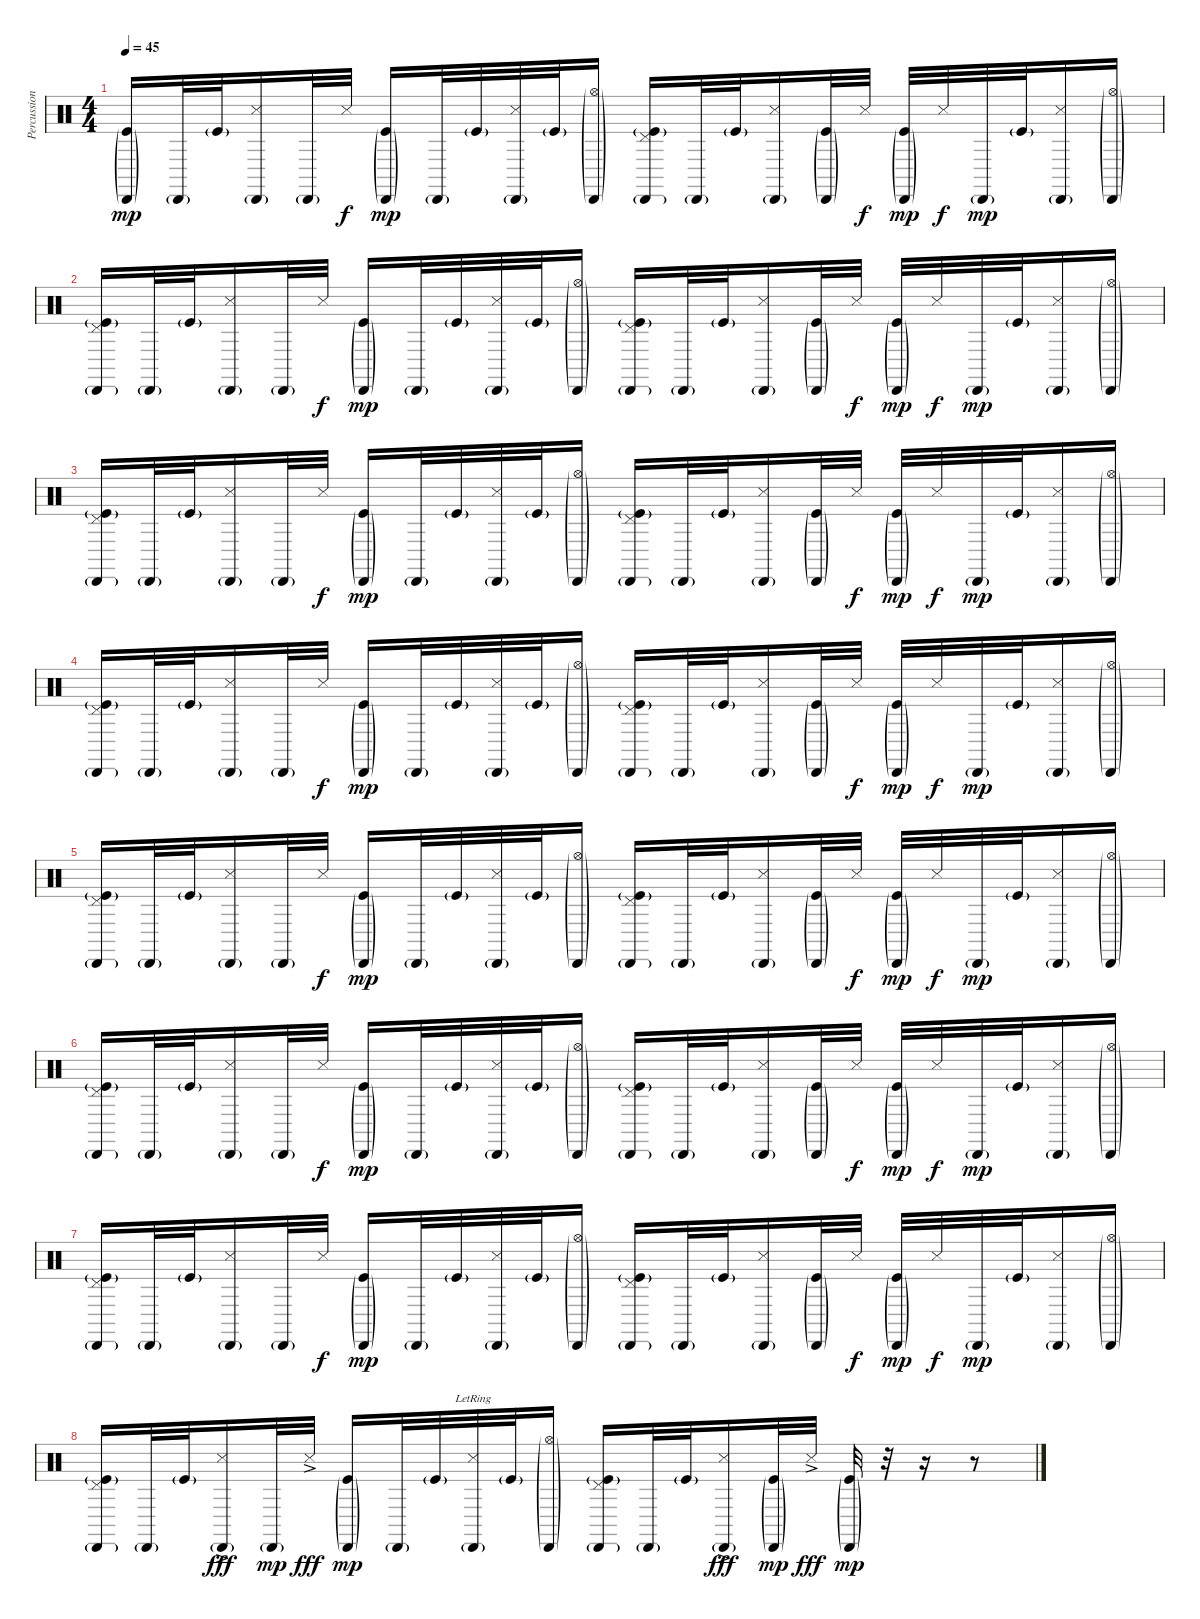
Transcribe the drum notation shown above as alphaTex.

\track ("Percussion" "Percussion") {instrument percussion}
\staff {score}
\articulation defaults
\ts (4 4)
\tempo 45
\clef neutral
\ks c
("Cabasa (hit)"{g} "Kick (hit)"{g}).16{dy mp} "Cabasa (hit)"{g}.32 "Kick (hit)"{g}.32 ("Cabasa (hit)"{g} "Snare (side stick) 3").16 "Cabasa (hit)"{g}.32 "Snare (side stick) 3".32{dy f} ("Cabasa (hit)"{g} "Kick (hit)"{g}).16{dy mp} "Cabasa (hit)"{g}.32 "Kick (hit)"{g}.32 ("Cabasa (hit)"{g} "Snare (side stick) 3").32 "Kick (hit)"{g}.32 ("Hi-Hat (open)"{g} "Cabasa (hit)"{g}).16 ("Pedal Hi-Hat (hit)" "Cabasa (hit)"{g} "Kick (hit)"{g}).16 "Cabasa (hit)"{g}.32 "Kick (hit)"{g}.32 ("Cabasa (hit)"{g} "Snare (side stick) 3").16 ("Cabasa (hit)"{g} "Kick (hit)"{g}).32 "Snare (side stick) 3".32{dy f} ("Cabasa (hit)"{g} "Kick (hit)"{g}).32{dy mp} "Snare (side stick) 3".32{dy f} "Cabasa (hit)"{g}.32{dy mp} "Kick (hit)"{g}.32 ("Cabasa (hit)"{g} "Snare (side stick) 3").16 ("Hi-Hat (open)"{g} "Cabasa (hit)"{g}).16 |
("Pedal Hi-Hat (hit)" "Cabasa (hit)"{g} "Kick (hit)"{g}).16 "Cabasa (hit)"{g}.32 "Kick (hit)"{g}.32 ("Cabasa (hit)"{g} "Snare (side stick) 3").16 "Cabasa (hit)"{g}.32 "Snare (side stick) 3".32{dy f} ("Cabasa (hit)"{g} "Kick (hit)"{g}).16{dy mp} "Cabasa (hit)"{g}.32 "Kick (hit)"{g}.32 ("Cabasa (hit)"{g} "Snare (side stick) 3").32 "Kick (hit)"{g}.32 ("Hi-Hat (open)"{g} "Cabasa (hit)"{g}).16 ("Pedal Hi-Hat (hit)" "Cabasa (hit)"{g} "Kick (hit)"{g}).16 "Cabasa (hit)"{g}.32 "Kick (hit)"{g}.32 ("Cabasa (hit)"{g} "Snare (side stick) 3").16 ("Cabasa (hit)"{g} "Kick (hit)"{g}).32 "Snare (side stick) 3".32{dy f} ("Cabasa (hit)"{g} "Kick (hit)"{g}).32{dy mp} "Snare (side stick) 3".32{dy f} "Cabasa (hit)"{g}.32{dy mp} "Kick (hit)"{g}.32 ("Cabasa (hit)"{g} "Snare (side stick) 3").16 ("Hi-Hat (open)"{g} "Cabasa (hit)"{g}).16 |
("Pedal Hi-Hat (hit)" "Cabasa (hit)"{g} "Kick (hit)"{g}).16 "Cabasa (hit)"{g}.32 "Kick (hit)"{g}.32 ("Cabasa (hit)"{g} "Snare (side stick) 3").16 "Cabasa (hit)"{g}.32 "Snare (side stick) 3".32{dy f} ("Cabasa (hit)"{g} "Kick (hit)"{g}).16{dy mp} "Cabasa (hit)"{g}.32 "Kick (hit)"{g}.32 ("Cabasa (hit)"{g} "Snare (side stick) 3").32 "Kick (hit)"{g}.32 ("Hi-Hat (open)"{g} "Cabasa (hit)"{g}).16 ("Pedal Hi-Hat (hit)" "Cabasa (hit)"{g} "Kick (hit)"{g}).16 "Cabasa (hit)"{g}.32 "Kick (hit)"{g}.32 ("Cabasa (hit)"{g} "Snare (side stick) 3").16 ("Cabasa (hit)"{g} "Kick (hit)"{g}).32 "Snare (side stick) 3".32{dy f} ("Cabasa (hit)"{g} "Kick (hit)"{g}).32{dy mp} "Snare (side stick) 3".32{dy f} "Cabasa (hit)"{g}.32{dy mp} "Kick (hit)"{g}.32 ("Cabasa (hit)"{g} "Snare (side stick) 3").16 ("Hi-Hat (open)"{g} "Cabasa (hit)"{g}).16 |
("Pedal Hi-Hat (hit)" "Cabasa (hit)"{g} "Kick (hit)"{g}).16 "Cabasa (hit)"{g}.32 "Kick (hit)"{g}.32 ("Cabasa (hit)"{g} "Snare (side stick) 3").16 "Cabasa (hit)"{g}.32 "Snare (side stick) 3".32{dy f} ("Cabasa (hit)"{g} "Kick (hit)"{g}).16{dy mp} "Cabasa (hit)"{g}.32 "Kick (hit)"{g}.32 ("Cabasa (hit)"{g} "Snare (side stick) 3").32 "Kick (hit)"{g}.32 ("Hi-Hat (open)"{g} "Cabasa (hit)"{g}).16 ("Pedal Hi-Hat (hit)" "Cabasa (hit)"{g} "Kick (hit)"{g}).16 "Cabasa (hit)"{g}.32 "Kick (hit)"{g}.32 ("Cabasa (hit)"{g} "Snare (side stick) 3").16 ("Cabasa (hit)"{g} "Kick (hit)"{g}).32 "Snare (side stick) 3".32{dy f} ("Cabasa (hit)"{g} "Kick (hit)"{g}).32{dy mp} "Snare (side stick) 3".32{dy f} "Cabasa (hit)"{g}.32{dy mp} "Kick (hit)"{g}.32 ("Cabasa (hit)"{g} "Snare (side stick) 3").16 ("Hi-Hat (open)"{g} "Cabasa (hit)"{g}).16 |
("Pedal Hi-Hat (hit)" "Cabasa (hit)"{g} "Kick (hit)"{g}).16 "Cabasa (hit)"{g}.32 "Kick (hit)"{g}.32 ("Cabasa (hit)"{g} "Snare (side stick) 3").16 "Cabasa (hit)"{g}.32 "Snare (side stick) 3".32{dy f} ("Cabasa (hit)"{g} "Kick (hit)"{g}).16{dy mp} "Cabasa (hit)"{g}.32 "Kick (hit)"{g}.32 ("Cabasa (hit)"{g} "Snare (side stick) 3").32 "Kick (hit)"{g}.32 ("Hi-Hat (open)"{g} "Cabasa (hit)"{g}).16 ("Pedal Hi-Hat (hit)" "Cabasa (hit)"{g} "Kick (hit)"{g}).16 "Cabasa (hit)"{g}.32 "Kick (hit)"{g}.32 ("Cabasa (hit)"{g} "Snare (side stick) 3").16 ("Cabasa (hit)"{g} "Kick (hit)"{g}).32 "Snare (side stick) 3".32{dy f} ("Cabasa (hit)"{g} "Kick (hit)"{g}).32{dy mp} "Snare (side stick) 3".32{dy f} "Cabasa (hit)"{g}.32{dy mp} "Kick (hit)"{g}.32 ("Cabasa (hit)"{g} "Snare (side stick) 3").16 ("Hi-Hat (open)"{g} "Cabasa (hit)"{g}).16 |
("Pedal Hi-Hat (hit)" "Cabasa (hit)"{g} "Kick (hit)"{g}).16 "Cabasa (hit)"{g}.32 "Kick (hit)"{g}.32 ("Cabasa (hit)"{g} "Snare (side stick) 3").16 "Cabasa (hit)"{g}.32 "Snare (side stick) 3".32{dy f} ("Cabasa (hit)"{g} "Kick (hit)"{g}).16{dy mp} "Cabasa (hit)"{g}.32 "Kick (hit)"{g}.32 ("Cabasa (hit)"{g} "Snare (side stick) 3").32 "Kick (hit)"{g}.32 ("Hi-Hat (open)"{g} "Cabasa (hit)"{g}).16 ("Pedal Hi-Hat (hit)" "Cabasa (hit)"{g} "Kick (hit)"{g}).16 "Cabasa (hit)"{g}.32 "Kick (hit)"{g}.32 ("Cabasa (hit)"{g} "Snare (side stick) 3").16 ("Cabasa (hit)"{g} "Kick (hit)"{g}).32 "Snare (side stick) 3".32{dy f} ("Cabasa (hit)"{g} "Kick (hit)"{g}).32{dy mp} "Snare (side stick) 3".32{dy f} "Cabasa (hit)"{g}.32{dy mp} "Kick (hit)"{g}.32 ("Cabasa (hit)"{g} "Snare (side stick) 3").16 ("Hi-Hat (open)"{g} "Cabasa (hit)"{g}).16 |
("Pedal Hi-Hat (hit)" "Cabasa (hit)"{g} "Kick (hit)"{g}).16 "Cabasa (hit)"{g}.32 "Kick (hit)"{g}.32 ("Cabasa (hit)"{g} "Snare (side stick) 3").16 "Cabasa (hit)"{g}.32 "Snare (side stick) 3".32{dy f} ("Cabasa (hit)"{g} "Kick (hit)"{g}).16{dy mp} "Cabasa (hit)"{g}.32 "Kick (hit)"{g}.32 ("Cabasa (hit)"{g} "Snare (side stick) 3").32 "Kick (hit)"{g}.32 ("Hi-Hat (open)"{g} "Cabasa (hit)"{g}).16 ("Pedal Hi-Hat (hit)" "Cabasa (hit)"{g} "Kick (hit)"{g}).16 "Cabasa (hit)"{g}.32 "Kick (hit)"{g}.32 ("Cabasa (hit)"{g} "Snare (side stick) 3").16 ("Cabasa (hit)"{g} "Kick (hit)"{g}).32 "Snare (side stick) 3".32{dy f} ("Cabasa (hit)"{g} "Kick (hit)"{g}).32{dy mp} "Snare (side stick) 3".32{dy f} "Cabasa (hit)"{g}.32{dy mp} "Kick (hit)"{g}.32 ("Cabasa (hit)"{g} "Snare (side stick) 3").16 ("Hi-Hat (open)"{g} "Cabasa (hit)"{g}).16 |
("Pedal Hi-Hat (hit)" "Cabasa (hit)"{g} "Kick (hit)"{g}).16 "Cabasa (hit)"{g}.32 "Kick (hit)"{g}.32 ("Cabasa (hit)"{g} "Snare (side stick) 3"{ac}).16{dy fff} "Cabasa (hit)"{g}.32{dy mp} "Snare (side stick) 3"{ac}.32{dy fff} ("Cabasa (hit)"{g} "Kick (hit)"{g}).16{dy mp} "Cabasa (hit)"{g}.32 "Kick (hit)"{g}.32 ("Cabasa (hit)"{g} "Snare (side stick) 3"{lr}).32 "Kick (hit)"{g}.32 ("Hi-Hat (open)"{g} "Cabasa (hit)"{g}).16 ("Pedal Hi-Hat (hit)" "Cabasa (hit)"{g} "Kick (hit)"{g}).16 "Cabasa (hit)"{g}.32 "Kick (hit)"{g}.32 ("Cabasa (hit)"{g} "Snare (side stick) 3"{ac}).16{dy fff} ("Cabasa (hit)"{g} "Kick (hit)"{g}).32{dy mp} "Snare (side stick) 3"{ac}.32{dy fff} ("Cabasa (hit)"{g} "Kick (hit)"{g}).32{dy mp} r.32 r.16 r.8
